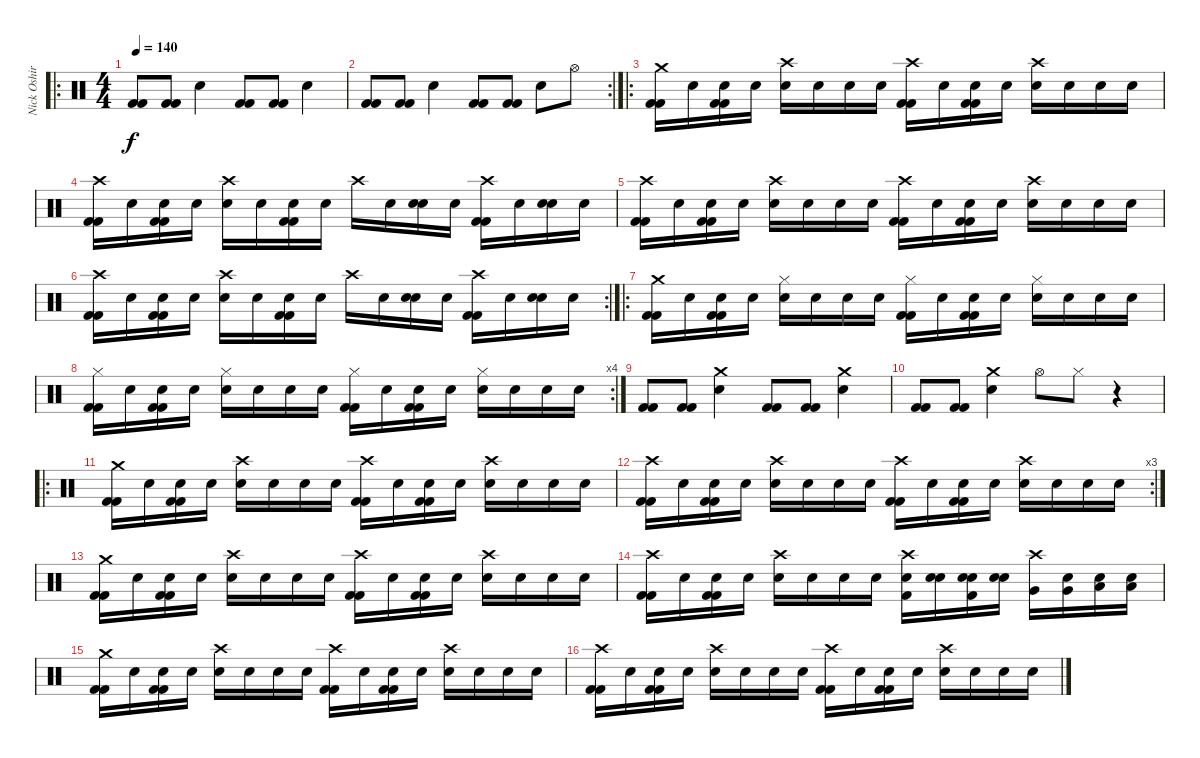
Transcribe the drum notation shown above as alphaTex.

\track ("Nick Oshiro / Drums" "Nick Oshir") {instrument percussion}
\staff {score}
\articulation defaults
\ro
\ts (4 4)
\tempo 140
\clef neutral
\ks c
("Kick (hit) 2" "Kick (hit) 2").8{dy f} ("Kick (hit) 2" "Kick (hit) 2").8 "Electric Snare (hit)".4 ("Kick (hit) 2" "Kick (hit) 2").8 ("Kick (hit) 2" "Kick (hit) 2").8 "Electric Snare (hit)".4 |
\rc 2
("Kick (hit) 2" "Kick (hit) 2").8 ("Kick (hit) 2" "Kick (hit) 2").8 "Electric Snare (hit)".4 ("Kick (hit) 2" "Kick (hit) 2").8 ("Kick (hit) 2" "Kick (hit) 2").8 "Electric Snare (hit)".8 "Hi-Hat (open)".8 |
\ro
("Crash medium (hit)" "Kick (hit) 2" "Kick (hit) 2").16 "Snare (hit)".16 ("Snare (hit)" "Kick (hit) 2" "Kick (hit) 2").16 "Snare (hit)".16 ("Crash high (hit)" "Electric Snare (hit)").16 "Snare (hit)".16 "Snare (hit)".16 "Snare (hit)".16 ("Crash high (hit)" "Kick (hit) 2" "Kick (hit) 2").16 "Snare (hit)".16 ("Snare (hit)" "Kick (hit) 2" "Kick (hit) 2").16 "Snare (hit)".16 ("Crash high (hit)" "Electric Snare (hit)").16 "Snare (hit)".16 "Snare (hit)".16 "Snare (hit)".16 |
("Crash high (hit)" "Kick (hit) 2" "Kick (hit) 2").16 "Snare (hit)".16 ("Snare (hit)" "Kick (hit) 2" "Kick (hit) 2").16 "Snare (hit)".16 ("Crash high (hit)" "Electric Snare (hit)").16 "Snare (hit)".16 ("Snare (hit)" "Kick (hit) 2" "Kick (hit) 2").16 "Snare (hit)".16 "Crash high (hit)".16 "Snare (hit)".16 ("Snare (hit)" "Electric Snare (hit)").16 "Snare (hit)".16 ("Crash high (hit)" "Kick (hit) 2" "Kick (hit) 2").16 "Snare (hit)".16 ("Snare (hit)" "Electric Snare (hit)").16 "Snare (hit)".16 |
("Crash high (hit)" "Kick (hit) 2" "Kick (hit) 2").16 "Snare (hit)".16 ("Snare (hit)" "Kick (hit) 2" "Kick (hit) 2").16 "Snare (hit)".16 ("Crash high (hit)" "Electric Snare (hit)").16 "Snare (hit)".16 "Snare (hit)".16 "Snare (hit)".16 ("Crash high (hit)" "Kick (hit) 2" "Kick (hit) 2").16 "Snare (hit)".16 ("Snare (hit)" "Kick (hit) 2" "Kick (hit) 2").16 "Snare (hit)".16 ("Crash high (hit)" "Electric Snare (hit)").16 "Snare (hit)".16 "Snare (hit)".16 "Snare (hit)".16 |
\rc 2
("Crash high (hit)" "Kick (hit) 2" "Kick (hit) 2").16 "Snare (hit)".16 ("Snare (hit)" "Kick (hit) 2" "Kick (hit) 2").16 "Snare (hit)".16 ("Crash high (hit)" "Electric Snare (hit)").16 "Snare (hit)".16 ("Snare (hit)" "Kick (hit) 2" "Kick (hit) 2").16 "Snare (hit)".16 "Crash high (hit)".16 "Snare (hit)".16 ("Snare (hit)" "Electric Snare (hit)").16 "Snare (hit)".16 ("Crash high (hit)" "Kick (hit) 2" "Kick (hit) 2").16 "Snare (hit)".16 ("Snare (hit)" "Electric Snare (hit)").16 "Snare (hit)".16 |
\ro
("Crash medium (hit)" "Kick (hit) 2" "Kick (hit) 2").16 "Snare (hit)".16 ("Snare (hit)" "Kick (hit) 2" "Kick (hit) 2").16 "Snare (hit)".16 ("Hi-Hat (closed)" "Electric Snare (hit)").16 "Snare (hit)".16 "Snare (hit)".16 "Snare (hit)".16 ("Hi-Hat (closed)" "Kick (hit) 2" "Kick (hit) 2").16 "Snare (hit)".16 ("Snare (hit)" "Kick (hit) 2" "Kick (hit) 2").16 "Snare (hit)".16 ("Hi-Hat (closed)" "Electric Snare (hit)").16 "Snare (hit)".16 "Snare (hit)".16 "Snare (hit)".16 |
\rc 4
("Hi-Hat (closed)" "Kick (hit) 2" "Kick (hit) 2").16 "Snare (hit)".16 ("Snare (hit)" "Kick (hit) 2" "Kick (hit) 2").16 "Snare (hit)".16 ("Hi-Hat (closed)" "Electric Snare (hit)").16 "Snare (hit)".16 "Snare (hit)".16 "Snare (hit)".16 ("Hi-Hat (closed)" "Kick (hit) 2" "Kick (hit) 2").16 "Snare (hit)".16 ("Snare (hit)" "Kick (hit) 2" "Kick (hit) 2").16 "Snare (hit)".16 ("Hi-Hat (closed)" "Electric Snare (hit)").16 "Snare (hit)".16 "Snare (hit)".16 "Snare (hit)".16 |
("Kick (hit) 2" "Kick (hit) 2").8 ("Kick (hit) 2" "Kick (hit) 2").8 ("Crash medium (hit)" "Electric Snare (hit)").4 ("Kick (hit) 2" "Kick (hit) 2").8 ("Kick (hit) 2" "Kick (hit) 2").8 ("Crash medium (hit)" "Electric Snare (hit)").4 |
("Kick (hit) 2" "Kick (hit) 2").8 ("Kick (hit) 2" "Kick (hit) 2").8 ("Crash medium (hit)" "Electric Snare (hit)").4 "Hi-Hat (open)".8 "Hi-Hat (closed)".8 r.4 |
\ro
("Crash medium (hit)" "Kick (hit) 2" "Kick (hit) 2").16 "Snare (hit)".16 ("Snare (hit)" "Kick (hit) 2" "Kick (hit) 2").16 "Snare (hit)".16 ("Crash high (hit)" "Electric Snare (hit)").16 "Snare (hit)".16 "Snare (hit)".16 "Snare (hit)".16 ("Crash high (hit)" "Kick (hit) 2" "Kick (hit) 2").16 "Snare (hit)".16 ("Snare (hit)" "Kick (hit) 2" "Kick (hit) 2").16 "Snare (hit)".16 ("Crash high (hit)" "Electric Snare (hit)").16 "Snare (hit)".16 "Snare (hit)".16 "Snare (hit)".16 |
\rc 3
("Crash high (hit)" "Kick (hit) 2" "Kick (hit) 2").16 "Snare (hit)".16 ("Snare (hit)" "Kick (hit) 2" "Kick (hit) 2").16 "Snare (hit)".16 ("Crash high (hit)" "Electric Snare (hit)").16 "Snare (hit)".16 "Snare (hit)".16 "Snare (hit)".16 ("Crash high (hit)" "Kick (hit) 2" "Kick (hit) 2").16 "Snare (hit)".16 ("Snare (hit)" "Kick (hit) 2" "Kick (hit) 2").16 "Snare (hit)".16 ("Crash high (hit)" "Electric Snare (hit)").16 "Snare (hit)".16 "Snare (hit)".16 "Snare (hit)".16 |
("Crash medium (hit)" "Kick (hit) 2" "Kick (hit) 2").16 "Snare (hit)".16 ("Snare (hit)" "Kick (hit) 2" "Kick (hit) 2").16 "Snare (hit)".16 ("Crash high (hit)" "Electric Snare (hit)").16 "Snare (hit)".16 "Snare (hit)".16 "Snare (hit)".16 ("Crash high (hit)" "Kick (hit) 2" "Kick (hit) 2").16 "Snare (hit)".16 ("Snare (hit)" "Kick (hit) 2" "Kick (hit) 2").16 "Snare (hit)".16 ("Crash high (hit)" "Electric Snare (hit)").16 "Snare (hit)".16 "Snare (hit)".16 "Snare (hit)".16 |
("Crash high (hit)" "Kick (hit) 2" "Kick (hit) 2").16 "Snare (hit)".16 ("Snare (hit)" "Kick (hit) 2" "Kick (hit) 2").16 "Snare (hit)".16 ("Crash high (hit)" "Electric Snare (hit)").16 "Snare (hit)".16 "Snare (hit)".16 "Snare (hit)".16 ("Crash high (hit)" "Electric Snare (hit)" "Kick (hit) 2").16 ("Snare (hit)" "Electric Snare (hit)").16 ("Snare (hit)" "Electric Snare (hit)" "Kick (hit) 2").16 ("Snare (hit)" "Electric Snare (hit)").16 ("Crash high (hit)" "Very Low Tom (hit)").16 ("Snare (hit)" "Very Low Tom (hit)").16 ("Snare (hit)" "Low Floor Tom (hit)").16 ("Snare (hit)" "Low Floor Tom (hit)").16 |
("Crash medium (hit)" "Kick (hit) 2" "Kick (hit) 2").16 "Snare (hit)".16 ("Snare (hit)" "Kick (hit) 2" "Kick (hit) 2").16 "Snare (hit)".16 ("Crash high (hit)" "Electric Snare (hit)").16 "Snare (hit)".16 "Snare (hit)".16 "Snare (hit)".16 ("Crash high (hit)" "Kick (hit) 2" "Kick (hit) 2").16 "Snare (hit)".16 ("Snare (hit)" "Kick (hit) 2" "Kick (hit) 2").16 "Snare (hit)".16 ("Crash high (hit)" "Electric Snare (hit)").16 "Snare (hit)".16 "Snare (hit)".16 "Snare (hit)".16 |
("Crash high (hit)" "Kick (hit) 2" "Kick (hit) 2").16 "Snare (hit)".16 ("Snare (hit)" "Kick (hit) 2" "Kick (hit) 2").16 "Snare (hit)".16 ("Crash high (hit)" "Electric Snare (hit)").16 "Snare (hit)".16 "Snare (hit)".16 "Snare (hit)".16 ("Crash high (hit)" "Kick (hit) 2" "Kick (hit) 2").16 "Snare (hit)".16 ("Snare (hit)" "Kick (hit) 2" "Kick (hit) 2").16 "Snare (hit)".16 ("Crash high (hit)" "Electric Snare (hit)").16 "Snare (hit)".16 "Snare (hit)".16 "Snare (hit)".16
